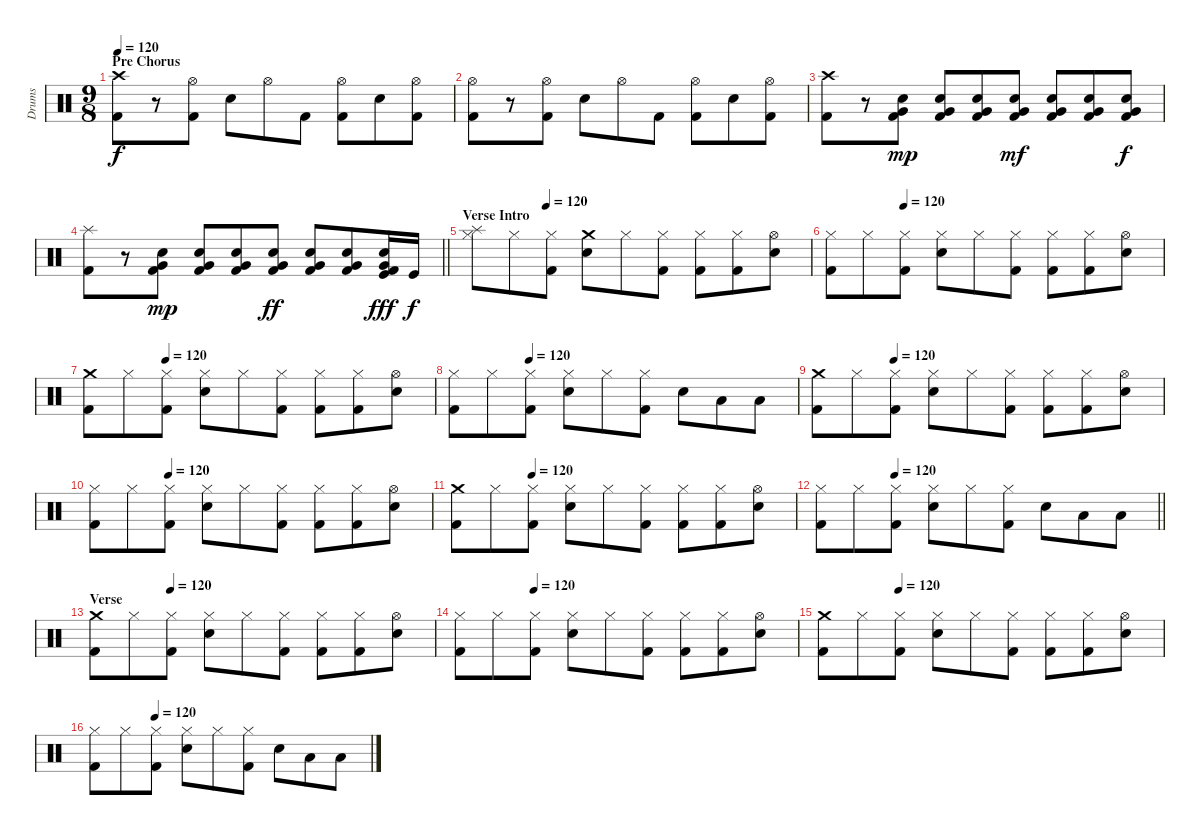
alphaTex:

\track ("Drums" "Drums") {instrument percussion}
\staff {score}
\articulation defaults
\ts (9 8)
\section ("" "Pre Chorus")
\tempo 120
\clef neutral
\ks c
("Kick (hit) 2" "Crash high (hit)").8{dy f} r.8 ("Kick (hit) 2" "Hi-Hat (open)").8 "Electric Snare (hit)".8 "Hi-Hat (open)".8 "Kick (hit) 2".8 ("Kick (hit) 2" "Hi-Hat (open)").8 "Electric Snare (hit)".8 ("Kick (hit) 2" "Hi-Hat (open)").8 |
("Kick (hit) 2" "Hi-Hat (open)").8 r.8 ("Kick (hit) 2" "Hi-Hat (open)").8 "Electric Snare (hit)".8 "Hi-Hat (open)".8 "Kick (hit) 2".8 ("Kick (hit) 2" "Hi-Hat (open)").8 "Electric Snare (hit)".8 ("Kick (hit) 2" "Hi-Hat (open)").8 |
("Kick (hit) 2" "Crash high (hit)").8 r.8 ("Electric Snare (hit)" "Very Low Tom (hit)" "Kick (hit) 2").8{dy mp} ("Electric Snare (hit)" "Very Low Tom (hit)" "Kick (hit) 2").8 ("Electric Snare (hit)" "Very Low Tom (hit)" "Kick (hit) 2").8 ("Kick (hit) 2" "Very Low Tom (hit)" "Electric Snare (hit)").8{dy mf} ("Electric Snare (hit)" "Very Low Tom (hit)" "Kick (hit) 2").8 ("Kick (hit) 2" "Very Low Tom (hit)" "Electric Snare (hit)").8 ("Electric Snare (hit)" "Very Low Tom (hit)" "Kick (hit) 2").8{dy f} |
\barLineRight lightlight
("Kick (hit) 2" "Splash (hit)").8 r.8 ("Electric Snare (hit)" "Very Low Tom (hit)" "Kick (hit) 2").8{dy mp} ("Electric Snare (hit)" "Very Low Tom (hit)" "Kick (hit) 2").8 ("Electric Snare (hit)" "Very Low Tom (hit)" "Kick (hit) 2").8 ("Kick (hit) 2" "Very Low Tom (hit)" "Electric Snare (hit)").8{dy ff} ("Electric Snare (hit)" "Very Low Tom (hit)" "Kick (hit) 2").8 ("Kick (hit) 2" "Very Low Tom (hit)" "Electric Snare (hit)").8 ("Electric Snare (hit)" "Very Low Tom (hit)" "Kick (hit) 2" "Kick (hit)").16{dy fff} "Kick (hit)".16{dy f} |
\section ("" "Verse Intro")
\tempo (120 0.2222222222222222)
("Splash (hit)" "Hi-Hat (closed)").8 "Hi-Hat (closed)".8 ("Kick (hit) 2" "Hi-Hat (closed)").8 ("Electric Snare (hit)" "Crash medium (hit)").8 "Hi-Hat (closed)".8 ("Kick (hit) 2" "Hi-Hat (closed)").8 ("Kick (hit) 2" "Hi-Hat (closed)").8 ("Kick (hit) 2" "Hi-Hat (closed)").8 ("Electric Snare (hit)" "Hi-Hat (open)").8 |
\tempo (120 0.2222222222222222)
("Kick (hit) 2" "Hi-Hat (closed)").8 "Hi-Hat (closed)".8 ("Kick (hit) 2" "Hi-Hat (closed)").8 ("Electric Snare (hit)" "Hi-Hat (closed)").8 "Hi-Hat (closed)".8 ("Kick (hit) 2" "Hi-Hat (closed)").8 ("Kick (hit) 2" "Hi-Hat (closed)").8 ("Kick (hit) 2" "Hi-Hat (closed)").8 ("Electric Snare (hit)" "Hi-Hat (open)").8 |
\tempo (120 0.2222222222222222)
("Kick (hit) 2" "Crash medium (hit)").8 "Hi-Hat (closed)".8 ("Kick (hit) 2" "Hi-Hat (closed)").8 ("Electric Snare (hit)" "Hi-Hat (closed)").8 "Hi-Hat (closed)".8 ("Kick (hit) 2" "Hi-Hat (closed)").8 ("Kick (hit) 2" "Hi-Hat (closed)").8 ("Kick (hit) 2" "Hi-Hat (closed)").8 ("Electric Snare (hit)" "Hi-Hat (open)").8 |
\tempo (120 0.2222222222222222)
("Kick (hit) 2" "Hi-Hat (closed)").8 "Hi-Hat (closed)".8 ("Kick (hit) 2" "Hi-Hat (closed)").8 ("Electric Snare (hit)" "Hi-Hat (closed)").8 "Hi-Hat (closed)".8 ("Kick (hit) 2" "Hi-Hat (closed)").8 "Electric Snare (hit)".8 "Low Tom (hit)".8 "Low Floor Tom (hit)".8 |
\tempo (120 0.2222222222222222)
("Kick (hit) 2" "Crash medium (hit)").8 "Hi-Hat (closed)".8 ("Kick (hit) 2" "Hi-Hat (closed)").8 ("Electric Snare (hit)" "Hi-Hat (closed)").8 "Hi-Hat (closed)".8 ("Kick (hit) 2" "Hi-Hat (closed)").8 ("Kick (hit) 2" "Hi-Hat (closed)").8 ("Kick (hit) 2" "Hi-Hat (closed)").8 ("Electric Snare (hit)" "Hi-Hat (open)").8 |
\tempo (120 0.2222222222222222)
("Kick (hit) 2" "Hi-Hat (closed)").8 "Hi-Hat (closed)".8 ("Kick (hit) 2" "Hi-Hat (closed)").8 ("Electric Snare (hit)" "Hi-Hat (closed)").8 "Hi-Hat (closed)".8 ("Kick (hit) 2" "Hi-Hat (closed)").8 ("Kick (hit) 2" "Hi-Hat (closed)").8 ("Kick (hit) 2" "Hi-Hat (closed)").8 ("Electric Snare (hit)" "Hi-Hat (open)").8 |
\tempo (120 0.2222222222222222)
("Kick (hit) 2" "Crash medium (hit)").8 "Hi-Hat (closed)".8 ("Kick (hit) 2" "Hi-Hat (closed)").8 ("Electric Snare (hit)" "Hi-Hat (closed)").8 "Hi-Hat (closed)".8 ("Kick (hit) 2" "Hi-Hat (closed)").8 ("Kick (hit) 2" "Hi-Hat (closed)").8 ("Kick (hit) 2" "Hi-Hat (closed)").8 ("Electric Snare (hit)" "Hi-Hat (open)").8 |
\tempo (120 0.2222222222222222)
\barLineRight lightlight
("Kick (hit) 2" "Hi-Hat (closed)").8 "Hi-Hat (closed)".8 ("Kick (hit) 2" "Hi-Hat (closed)").8 ("Electric Snare (hit)" "Hi-Hat (closed)").8 "Hi-Hat (closed)".8 ("Kick (hit) 2" "Hi-Hat (closed)").8 "Electric Snare (hit)".8 "Low Tom (hit)".8 "Low Floor Tom (hit)".8 |
\section ("" "Verse")
\tempo (120 0.2222222222222222)
("Kick (hit) 2" "Crash medium (hit)").8 "Hi-Hat (closed)".8 ("Kick (hit) 2" "Hi-Hat (closed)").8 ("Electric Snare (hit)" "Hi-Hat (closed)").8 "Hi-Hat (closed)".8 ("Kick (hit) 2" "Hi-Hat (closed)").8 ("Kick (hit) 2" "Hi-Hat (closed)").8 ("Kick (hit) 2" "Hi-Hat (closed)").8 ("Electric Snare (hit)" "Hi-Hat (open)").8 |
\tempo (120 0.2222222222222222)
("Kick (hit) 2" "Hi-Hat (closed)").8 "Hi-Hat (closed)".8 ("Kick (hit) 2" "Hi-Hat (closed)").8 ("Electric Snare (hit)" "Hi-Hat (closed)").8 "Hi-Hat (closed)".8 ("Kick (hit) 2" "Hi-Hat (closed)").8 ("Kick (hit) 2" "Hi-Hat (closed)").8 ("Kick (hit) 2" "Hi-Hat (closed)").8 ("Electric Snare (hit)" "Hi-Hat (open)").8 |
\tempo (120 0.2222222222222222)
("Kick (hit) 2" "Crash medium (hit)").8 "Hi-Hat (closed)".8 ("Kick (hit) 2" "Hi-Hat (closed)").8 ("Electric Snare (hit)" "Hi-Hat (closed)").8 "Hi-Hat (closed)".8 ("Kick (hit) 2" "Hi-Hat (closed)").8 ("Kick (hit) 2" "Hi-Hat (closed)").8 ("Kick (hit) 2" "Hi-Hat (closed)").8 ("Electric Snare (hit)" "Hi-Hat (open)").8 |
\tempo (120 0.2222222222222222)
("Kick (hit) 2" "Hi-Hat (closed)").8 "Hi-Hat (closed)".8 ("Kick (hit) 2" "Hi-Hat (closed)").8 ("Electric Snare (hit)" "Hi-Hat (closed)").8 "Hi-Hat (closed)".8 ("Kick (hit) 2" "Hi-Hat (closed)").8 "Electric Snare (hit)".8 "Low Tom (hit)".8 "Low Floor Tom (hit)".8
